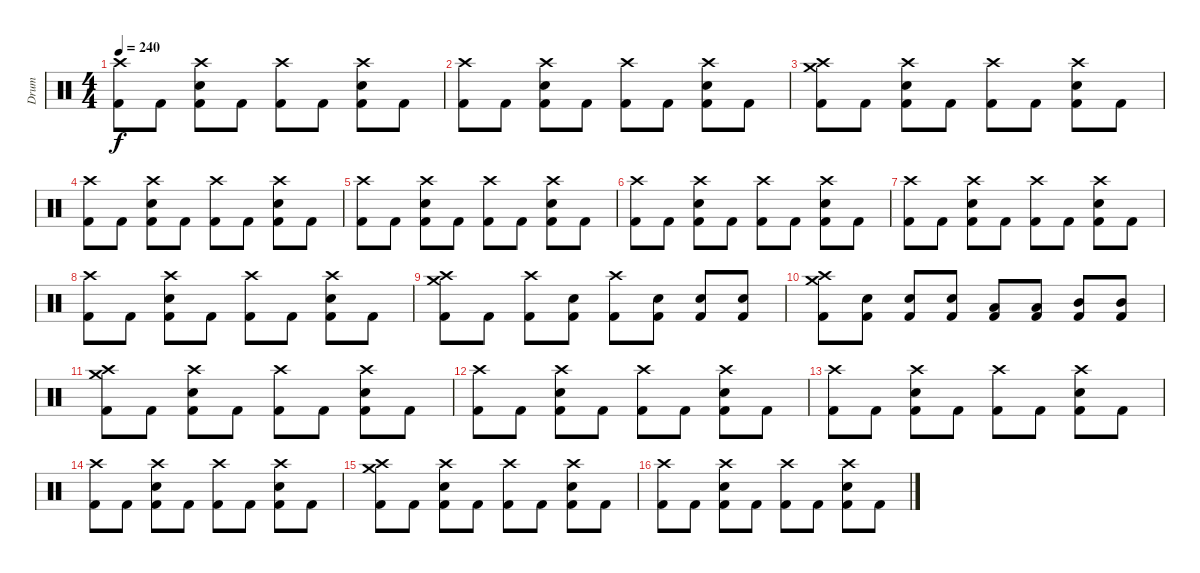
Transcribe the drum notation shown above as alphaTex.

\track ("Drum" "Drum") {instrument percussion}
\staff {score}
\articulation defaults
\ts (4 4)
\tempo 240
\clef neutral
\ks c
("Crash high (hit)" "Kick (hit) 2").8{dy f} "Kick (hit) 2".8 ("Crash high (hit)" "Kick (hit) 2" "Electric Snare (hit)").8 "Kick (hit) 2".8 ("Crash high (hit)" "Kick (hit) 2").8 "Kick (hit) 2".8 ("Crash high (hit)" "Kick (hit) 2" "Electric Snare (hit)").8 "Kick (hit) 2".8 |
("Crash high (hit)" "Kick (hit) 2").8 "Kick (hit) 2".8 ("Crash high (hit)" "Kick (hit) 2" "Electric Snare (hit)").8 "Kick (hit) 2".8 ("Crash high (hit)" "Kick (hit) 2").8 "Kick (hit) 2".8 ("Crash high (hit)" "Kick (hit) 2" "Electric Snare (hit)").8 "Kick (hit) 2".8 |
("Crash high (hit)" "Kick (hit) 2" "Crash medium (hit)").8 "Kick (hit) 2".8 ("Crash high (hit)" "Kick (hit) 2" "Electric Snare (hit)").8 "Kick (hit) 2".8 ("Crash high (hit)" "Kick (hit) 2").8 "Kick (hit) 2".8 ("Crash high (hit)" "Kick (hit) 2" "Electric Snare (hit)").8 "Kick (hit) 2".8 |
("Crash high (hit)" "Kick (hit) 2").8 "Kick (hit) 2".8 ("Crash high (hit)" "Kick (hit) 2" "Electric Snare (hit)").8 "Kick (hit) 2".8 ("Crash high (hit)" "Kick (hit) 2").8 "Kick (hit) 2".8 ("Crash high (hit)" "Kick (hit) 2" "Electric Snare (hit)").8 "Kick (hit) 2".8 |
("Crash high (hit)" "Kick (hit) 2").8 "Kick (hit) 2".8 ("Crash high (hit)" "Kick (hit) 2" "Electric Snare (hit)").8 "Kick (hit) 2".8 ("Crash high (hit)" "Kick (hit) 2").8 "Kick (hit) 2".8 ("Crash high (hit)" "Kick (hit) 2" "Electric Snare (hit)").8 "Kick (hit) 2".8 |
("Crash high (hit)" "Kick (hit) 2").8 "Kick (hit) 2".8 ("Crash high (hit)" "Kick (hit) 2" "Electric Snare (hit)").8 "Kick (hit) 2".8 ("Crash high (hit)" "Kick (hit) 2").8 "Kick (hit) 2".8 ("Crash high (hit)" "Kick (hit) 2" "Electric Snare (hit)").8 "Kick (hit) 2".8 |
("Crash high (hit)" "Kick (hit) 2").8 "Kick (hit) 2".8 ("Crash high (hit)" "Kick (hit) 2" "Electric Snare (hit)").8 "Kick (hit) 2".8 ("Crash high (hit)" "Kick (hit) 2").8 "Kick (hit) 2".8 ("Crash high (hit)" "Kick (hit) 2" "Electric Snare (hit)").8 "Kick (hit) 2".8 |
("Crash high (hit)" "Kick (hit) 2").8 "Kick (hit) 2".8 ("Crash high (hit)" "Kick (hit) 2" "Electric Snare (hit)").8 "Kick (hit) 2".8 ("Crash high (hit)" "Kick (hit) 2").8 "Kick (hit) 2".8 ("Crash high (hit)" "Kick (hit) 2" "Electric Snare (hit)").8 "Kick (hit) 2".8 |
("Crash high (hit)" "Kick (hit) 2" "Crash medium (hit)").8 "Kick (hit) 2".8 ("Crash high (hit)" "Kick (hit) 2").8 ("Kick (hit) 2" "Electric Snare (hit)").8 ("Crash high (hit)" "Kick (hit) 2").8 ("Kick (hit) 2" "Electric Snare (hit)").8 ("Kick (hit) 2" "Electric Snare (hit)").8 ("Kick (hit) 2" "Electric Snare (hit)").8 |
("Crash high (hit)" "Kick (hit) 2" "Crash medium (hit)").8 ("Kick (hit) 2" "Electric Snare (hit)").8 ("Kick (hit) 2" "Electric Snare (hit)").8 ("Kick (hit) 2" "Electric Snare (hit)").8 ("Kick (hit) 2" "Low Tom (hit)").8 ("Kick (hit) 2" "Low Tom (hit)").8 ("Kick (hit) 2" "Mid Tom (hit)").8 ("Kick (hit) 2" "Mid Tom (hit)").8 |
("Crash high (hit)" "Kick (hit) 2" "Crash medium (hit)").8 "Kick (hit) 2".8 ("Crash high (hit)" "Kick (hit) 2" "Electric Snare (hit)").8 "Kick (hit) 2".8 ("Crash high (hit)" "Kick (hit) 2").8 "Kick (hit) 2".8 ("Crash high (hit)" "Kick (hit) 2" "Electric Snare (hit)").8 "Kick (hit) 2".8 |
("Crash high (hit)" "Kick (hit) 2").8 "Kick (hit) 2".8 ("Crash high (hit)" "Kick (hit) 2" "Electric Snare (hit)").8 "Kick (hit) 2".8 ("Crash high (hit)" "Kick (hit) 2").8 "Kick (hit) 2".8 ("Crash high (hit)" "Kick (hit) 2" "Electric Snare (hit)").8 "Kick (hit) 2".8 |
("Crash high (hit)" "Kick (hit) 2").8 "Kick (hit) 2".8 ("Crash high (hit)" "Kick (hit) 2" "Electric Snare (hit)").8 "Kick (hit) 2".8 ("Crash high (hit)" "Kick (hit) 2").8 "Kick (hit) 2".8 ("Crash high (hit)" "Kick (hit) 2" "Electric Snare (hit)").8 "Kick (hit) 2".8 |
("Crash high (hit)" "Kick (hit) 2").8 "Kick (hit) 2".8 ("Crash high (hit)" "Kick (hit) 2" "Electric Snare (hit)").8 "Kick (hit) 2".8 ("Crash high (hit)" "Kick (hit) 2").8 "Kick (hit) 2".8 ("Crash high (hit)" "Kick (hit) 2" "Electric Snare (hit)").8 "Kick (hit) 2".8 |
("Crash high (hit)" "Kick (hit) 2" "Crash medium (hit)").8 "Kick (hit) 2".8 ("Crash high (hit)" "Kick (hit) 2" "Electric Snare (hit)").8 "Kick (hit) 2".8 ("Crash high (hit)" "Kick (hit) 2").8 "Kick (hit) 2".8 ("Crash high (hit)" "Kick (hit) 2" "Electric Snare (hit)").8 "Kick (hit) 2".8 |
("Crash high (hit)" "Kick (hit) 2").8 "Kick (hit) 2".8 ("Crash high (hit)" "Kick (hit) 2" "Electric Snare (hit)").8 "Kick (hit) 2".8 ("Crash high (hit)" "Kick (hit) 2").8 "Kick (hit) 2".8 ("Crash high (hit)" "Kick (hit) 2" "Electric Snare (hit)").8 "Kick (hit) 2".8
